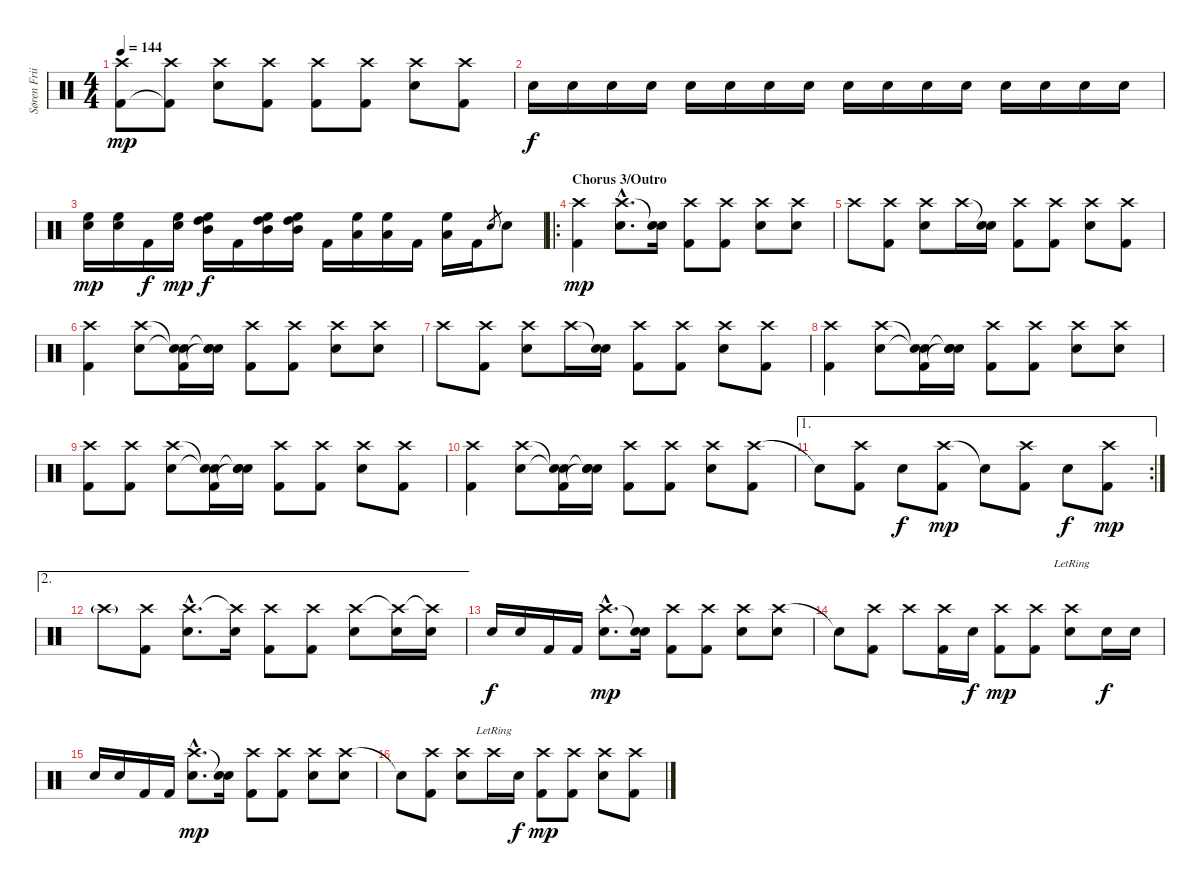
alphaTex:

\track ("Søren Friis" "Søren Frii") {instrument percussion}
\staff {score}
\articulation defaults
\ts (4 4)
\tempo 144
\clef neutral
\ks c
("Crash high (hit)" "Kick (hit) 2").8{dy mp} ("Crash high (hit)" "Kick (hit) 2"{t}).8 ("Crash high (hit)" "Snare (hit) 2").8 ("Crash high (hit)" "Kick (hit) 2").8 ("Crash high (hit)" "Kick (hit) 2").8 ("Crash high (hit)" "Kick (hit) 2").8 ("Crash high (hit)" "Snare (hit) 2").8 ("Crash high (hit)" "Kick (hit) 2").8 |
"Snare (hit) 2".16{dy f} "Snare (hit) 2".16 "Snare (hit) 2".16 "Snare (hit) 2".16 "Snare (hit) 2".16 "Snare (hit) 2".16 "Snare (hit) 2".16 "Snare (hit) 2".16 "Snare (hit) 2".16 "Snare (hit) 2".16 "Snare (hit) 2".16 "Snare (hit) 2".16 "Snare (hit) 2".16 "Snare (hit) 2".16 "Snare (hit) 2".16 "Snare (hit) 2".16 |
("High Floor Tom (hit)" "Snare (hit) 2").16{dy mp} ("High Floor Tom (hit)" "Snare (hit) 2").16 "Kick (hit) 2".16{dy f} ("High Floor Tom (hit)" "Snare (hit) 2").16{dy mp} ("High Floor Tom (hit)" "High Tom (hit)" "Mid Tom (hit)").16{dy f} "Kick (hit) 2".16 ("High Floor Tom (hit)" "High Tom (hit)" "Mid Tom (hit)").16 ("High Floor Tom (hit)" "High Tom (hit)" "Mid Tom (hit)").16 "Kick (hit) 2".16 ("High Floor Tom (hit)" "Low Tom (hit)").16 ("High Floor Tom (hit)" "Low Tom (hit)").16 "Kick (hit) 2".16 ("High Floor Tom (hit)" "Low Tom (hit)").16 "Kick (hit) 2".16 "Snare (hit) 2".8{gr} "Snare (hit) 2".8 |
\ro
\section ("" "Chorus 3/Outro")
("Crash high (hit)" "Kick (hit) 2").4{dy mp} ("Crash high (hit)"{hac} "Snare (hit) 2"{hac}).8{d} ("Snare (hit)"{t} "Snare (hit) 2").16 ("Crash high (hit)" "Kick (hit) 2").8 ("Crash high (hit)" "Kick (hit) 2").8 ("Crash high (hit)" "Snare (hit) 2").8 ("Crash high (hit)" "Snare (hit) 2").8 |
"Crash high (hit)".8 ("Crash high (hit)" "Kick (hit) 2").8 ("Crash high (hit)" "Snare (hit) 2").8 "Crash high (hit)".16 ("Snare (hit)"{t} "Snare (hit) 2").16 ("Crash high (hit)" "Kick (hit) 2").8 ("Crash high (hit)" "Kick (hit) 2").8 ("Crash high (hit)" "Snare (hit) 2").8 ("Crash high (hit)" "Kick (hit) 2").8 |
("Crash high (hit)" "Kick (hit) 2").4 ("Crash high (hit)" "Snare (hit) 2").8 ("Snare (hit)"{t} "Snare (hit)"{t} "Kick (hit) 2").16 ("Snare (hit)"{t} "Snare (hit) 2" "Snare (hit)"{t}).16 ("Crash high (hit)" "Kick (hit) 2").8 ("Crash high (hit)" "Kick (hit) 2").8 ("Crash high (hit)" "Snare (hit) 2").8 ("Crash high (hit)" "Snare (hit) 2").8 |
"Crash high (hit)".8 ("Crash high (hit)" "Kick (hit) 2").8 ("Crash high (hit)" "Snare (hit) 2").8 "Crash high (hit)".16 ("Snare (hit)"{t} "Snare (hit) 2").16 ("Crash high (hit)" "Kick (hit) 2").8 ("Crash high (hit)" "Kick (hit) 2").8 ("Crash high (hit)" "Snare (hit) 2").8 ("Crash high (hit)" "Kick (hit) 2").8 |
("Crash high (hit)" "Kick (hit) 2").4 ("Crash high (hit)" "Snare (hit) 2").8 ("Snare (hit)"{t} "Snare (hit)"{t} "Kick (hit) 2").16 ("Snare (hit)"{t} "Snare (hit) 2" "Snare (hit)"{t}).16 ("Crash high (hit)" "Kick (hit) 2").8 ("Crash high (hit)" "Kick (hit) 2").8 ("Crash high (hit)" "Snare (hit) 2").8 ("Crash high (hit)" "Snare (hit) 2").8 |
("Crash high (hit)" "Kick (hit) 2").8 ("Crash high (hit)" "Kick (hit) 2").8 ("Crash high (hit)" "Snare (hit) 2").8 ("Snare (hit)"{t} "Snare (hit)"{t} "Kick (hit) 2").16 ("Snare (hit)"{t} "Snare (hit) 2" "Snare (hit)"{t}).16 ("Crash high (hit)" "Kick (hit) 2").8 ("Crash high (hit)" "Kick (hit) 2").8 ("Crash high (hit)" "Snare (hit) 2").8 ("Crash high (hit)" "Kick (hit) 2").8 |
("Crash high (hit)" "Kick (hit) 2").4 ("Crash high (hit)" "Snare (hit) 2").8 ("Snare (hit)"{t} "Snare (hit)"{t} "Kick (hit) 2").16 ("Snare (hit)"{t} "Snare (hit) 2" "Snare (hit)"{t}).16 ("Crash high (hit)" "Kick (hit) 2").8 ("Crash high (hit)" "Kick (hit) 2").8 ("Crash high (hit)" "Snare (hit) 2").8 ("Crash high (hit)" "Kick (hit) 2").8 |
\ae 1
\rc 2 "Snare (hit)"{t}.8
("Crash high (hit)" "Kick (hit) 2").8 "Snare (hit) 2".8{dy f} ("Crash high (hit)" "Kick (hit) 2").8{dy mp} "Snare (hit)"{t}.8 ("Crash high (hit)" "Kick (hit) 2").8 "Snare (hit) 2".8{dy f} ("Crash high (hit)" "Kick (hit) 2").8{dy mp} |
\ae 2 "Crash high (hit)"{g}.8
("Crash high (hit)" "Kick (hit) 2").8 ("Crash high (hit)"{hac} "Snare (hit) 2"{hac}).8{d} ("Crash high (hit)"{t} "Snare (hit) 2").16 ("Crash high (hit)" "Kick (hit) 2").8 ("Crash high (hit)" "Kick (hit) 2").8 ("Crash high (hit)" "Snare (hit) 2").8 ("Crash high (hit)"{t} "Snare (hit) 2").16 ("Crash high (hit)"{t} "Snare (hit) 2").16 |
"Snare (hit) 2".16{dy f} "Snare (hit) 2".16 "Kick (hit) 2".16 "Kick (hit) 2".16 ("Crash high (hit)"{hac} "Snare (hit) 2"{hac}).8{d dy mp} ("Snare (hit)"{t} "Snare (hit) 2").16 ("Crash high (hit)" "Kick (hit) 2").8 ("Crash high (hit)" "Kick (hit) 2").8 ("Crash high (hit)" "Snare (hit) 2").8 ("Crash high (hit)" "Snare (hit) 2").8 |
"Snare (hit)"{t}.8 ("Crash high (hit)" "Kick (hit) 2").8 "Crash high (hit)".8 ("Crash high (hit)" "Kick (hit) 2").16 "Snare (hit) 2".16{dy f} ("Crash high (hit)" "Kick (hit) 2").8{dy mp} ("Crash high (hit)" "Kick (hit) 2").8 ("Crash high (hit)"{lr} "Snare (hit) 2").8 "Snare (hit) 2".16{dy f} "Snare (hit) 2".16 |
"Snare (hit) 2".16 "Snare (hit) 2".16 "Kick (hit) 2".16 "Kick (hit) 2".16 ("Crash high (hit)"{hac} "Snare (hit) 2"{hac}).8{d dy mp} ("Snare (hit)"{t} "Snare (hit) 2").16 ("Crash high (hit)" "Kick (hit) 2").8 ("Crash high (hit)" "Kick (hit) 2").8 ("Crash high (hit)" "Snare (hit) 2").8 ("Crash high (hit)" "Snare (hit) 2").8 |
"Snare (hit)"{t}.8 ("Crash high (hit)" "Kick (hit) 2").8 ("Crash high (hit)" "Snare (hit) 2").8 "Crash high (hit)"{lr}.16 "Snare (hit) 2".16{dy f} ("Crash high (hit)" "Kick (hit) 2").8{dy mp} ("Crash high (hit)" "Kick (hit) 2").8 ("Crash high (hit)" "Snare (hit) 2").8 ("Crash high (hit)" "Kick (hit) 2").8
